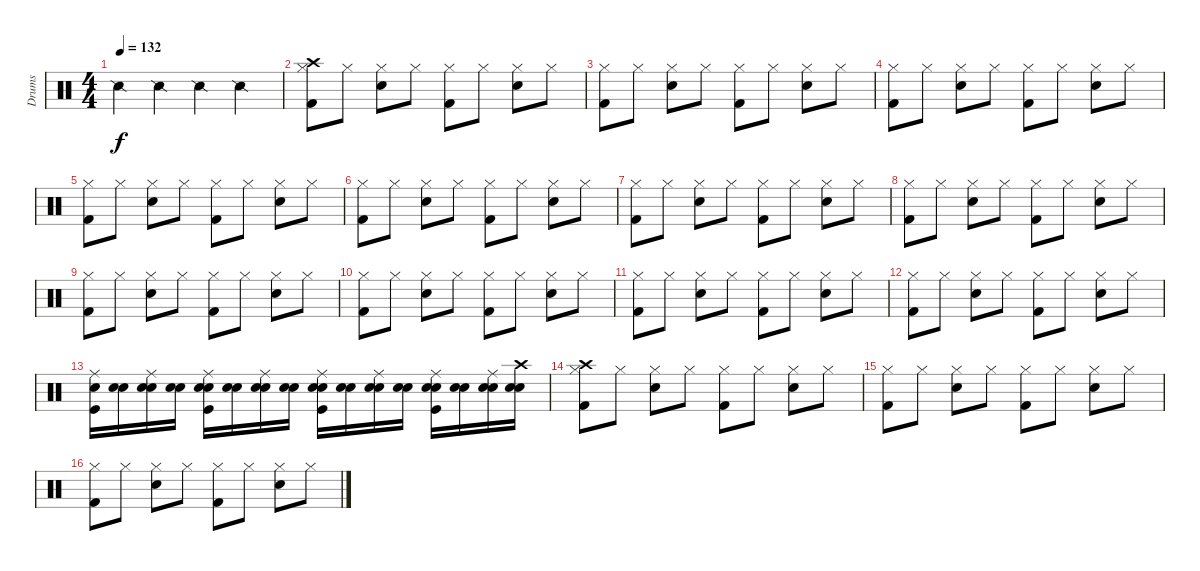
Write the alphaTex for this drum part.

\track ("Drums" "Drums") {instrument percussion}
\staff {score}
\articulation defaults
\ts (4 4)
\tempo 132
\clef neutral
\ks c "Snare (side stick) 2".4{dy f} "Snare (side stick) 2".4 "Snare (side stick) 2".4 "Snare (side stick) 2".4
|
("Hi-Hat (closed)" "Crash high (hit)" "Kick (hit) 2").8 "Hi-Hat (closed)".8 ("Hi-Hat (closed)" "Snare (hit) 2").8 "Hi-Hat (closed)".8 ("Hi-Hat (closed)" "Kick (hit) 2").8 "Hi-Hat (closed)".8 ("Hi-Hat (closed)" "Snare (hit) 2").8 "Hi-Hat (closed)".8 |
("Hi-Hat (closed)" "Kick (hit) 2").8 "Hi-Hat (closed)".8 ("Hi-Hat (closed)" "Snare (hit) 2").8 "Hi-Hat (closed)".8 ("Hi-Hat (closed)" "Kick (hit) 2").8 "Hi-Hat (closed)".8 ("Hi-Hat (closed)" "Snare (hit) 2").8 "Hi-Hat (closed)".8 |
("Hi-Hat (closed)" "Kick (hit) 2").8 "Hi-Hat (closed)".8 ("Hi-Hat (closed)" "Snare (hit) 2").8 "Hi-Hat (closed)".8 ("Hi-Hat (closed)" "Kick (hit) 2").8 "Hi-Hat (closed)".8 ("Hi-Hat (closed)" "Snare (hit) 2").8 "Hi-Hat (closed)".8 |
("Hi-Hat (closed)" "Kick (hit) 2").8 "Hi-Hat (closed)".8 ("Hi-Hat (closed)" "Snare (hit) 2").8 "Hi-Hat (closed)".8 ("Hi-Hat (closed)" "Kick (hit) 2").8 "Hi-Hat (closed)".8 ("Hi-Hat (closed)" "Snare (hit) 2").8 "Hi-Hat (closed)".8 |
("Hi-Hat (closed)" "Kick (hit) 2").8 "Hi-Hat (closed)".8 ("Hi-Hat (closed)" "Snare (hit) 2").8 "Hi-Hat (closed)".8 ("Hi-Hat (closed)" "Kick (hit) 2").8 "Hi-Hat (closed)".8 ("Hi-Hat (closed)" "Snare (hit) 2").8 "Hi-Hat (closed)".8 |
("Hi-Hat (closed)" "Kick (hit) 2").8 "Hi-Hat (closed)".8 ("Hi-Hat (closed)" "Snare (hit) 2").8 "Hi-Hat (closed)".8 ("Hi-Hat (closed)" "Kick (hit) 2").8 "Hi-Hat (closed)".8 ("Hi-Hat (closed)" "Snare (hit) 2").8 "Hi-Hat (closed)".8 |
("Hi-Hat (closed)" "Kick (hit) 2").8 "Hi-Hat (closed)".8 ("Hi-Hat (closed)" "Snare (hit) 2").8 "Hi-Hat (closed)".8 ("Hi-Hat (closed)" "Kick (hit) 2").8 "Hi-Hat (closed)".8 ("Hi-Hat (closed)" "Snare (hit) 2").8 "Hi-Hat (closed)".8 |
("Hi-Hat (closed)" "Kick (hit) 2").8 "Hi-Hat (closed)".8 ("Hi-Hat (closed)" "Snare (hit) 2").8 "Hi-Hat (closed)".8 ("Hi-Hat (closed)" "Kick (hit) 2").8 "Hi-Hat (closed)".8 ("Hi-Hat (closed)" "Snare (hit) 2").8 "Hi-Hat (closed)".8 |
("Hi-Hat (closed)" "Kick (hit) 2").8 "Hi-Hat (closed)".8 ("Hi-Hat (closed)" "Snare (hit) 2").8 "Hi-Hat (closed)".8 ("Hi-Hat (closed)" "Kick (hit) 2").8 "Hi-Hat (closed)".8 ("Hi-Hat (closed)" "Snare (hit) 2").8 "Hi-Hat (closed)".8 |
("Hi-Hat (closed)" "Kick (hit) 2").8 "Hi-Hat (closed)".8 ("Hi-Hat (closed)" "Snare (hit) 2").8 "Hi-Hat (closed)".8 ("Hi-Hat (closed)" "Kick (hit) 2").8 "Hi-Hat (closed)".8 ("Hi-Hat (closed)" "Snare (hit) 2").8 "Hi-Hat (closed)".8 |
("Hi-Hat (closed)" "Kick (hit) 2").8 "Hi-Hat (closed)".8 ("Hi-Hat (closed)" "Snare (hit) 2").8 "Hi-Hat (closed)".8 ("Hi-Hat (closed)" "Kick (hit) 2").8 "Hi-Hat (closed)".8 ("Hi-Hat (closed)" "Snare (hit) 2").8 "Hi-Hat (closed)".8 |
("Snare (hit) 2" "Kick (hit)" "Ride (middle)").16 ("Snare (hit)" "Snare (hit) 2").16 ("Snare (hit)" "Snare (hit) 2" "Ride (middle)").16 ("Snare (hit)" "Snare (hit) 2").16 ("Snare (hit)" "Snare (hit) 2" "Kick (hit)" "Ride (middle)").16 ("Snare (hit)" "Snare (hit) 2").16 ("Snare (hit)" "Snare (hit) 2" "Ride (middle)").16 ("Snare (hit)" "Snare (hit) 2").16 ("Snare (hit)" "Snare (hit) 2" "Kick (hit)" "Ride (middle)").16 ("Snare (hit)" "Snare (hit) 2").16 ("Snare (hit)" "Snare (hit) 2" "Ride (middle)").16 ("Snare (hit)" "Snare (hit) 2").16 ("Snare (hit)" "Snare (hit) 2" "Kick (hit)" "Ride (middle)").16 ("Snare (hit)" "Snare (hit) 2").16 ("Snare (hit)" "Snare (hit) 2" "Ride (middle)").16 ("Snare (hit)" "Snare (hit) 2" "Crash high (hit)").16 |
("Hi-Hat (closed)" "Crash high (hit)" "Kick (hit) 2").8 "Hi-Hat (closed)".8 ("Hi-Hat (closed)" "Snare (hit) 2").8 "Hi-Hat (closed)".8 ("Hi-Hat (closed)" "Kick (hit) 2").8 "Hi-Hat (closed)".8 ("Hi-Hat (closed)" "Snare (hit) 2").8 "Hi-Hat (closed)".8 |
("Hi-Hat (closed)" "Kick (hit) 2").8 "Hi-Hat (closed)".8 ("Hi-Hat (closed)" "Snare (hit) 2").8 "Hi-Hat (closed)".8 ("Hi-Hat (closed)" "Kick (hit) 2").8 "Hi-Hat (closed)".8 ("Hi-Hat (closed)" "Snare (hit) 2").8 "Hi-Hat (closed)".8 |
("Hi-Hat (closed)" "Kick (hit) 2").8 "Hi-Hat (closed)".8 ("Hi-Hat (closed)" "Snare (hit) 2").8 "Hi-Hat (closed)".8 ("Hi-Hat (closed)" "Kick (hit) 2").8 "Hi-Hat (closed)".8 ("Hi-Hat (closed)" "Snare (hit) 2").8 "Hi-Hat (closed)".8
